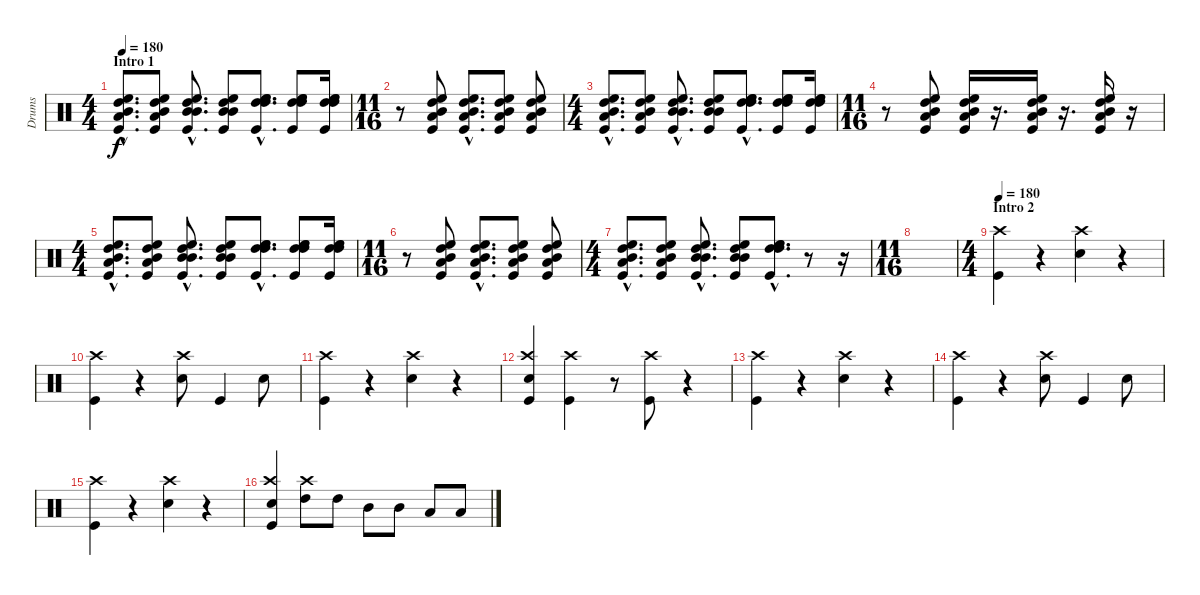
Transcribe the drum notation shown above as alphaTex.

\track ("Drums" "Drums") {instrument percussion}
\staff {score}
\articulation defaults
\ts (4 4)
\section ("" "Intro 1")
\tempo 180
\tempo 160
\tempo 180
\clef neutral
\ks c
("Low Tom (hit)"{hac} "Mid Tom (hit)"{hac} "High Tom (hit)"{hac} "High Floor Tom (hit)"{hac} "Kick (hit)"{hac}).8{d dy f} ("Low Tom (hit)" "Mid Tom (hit)" "High Tom (hit)" "High Floor Tom (hit)" "Kick (hit)").8 ("Mid Tom (hit)"{hac} "Mid Tom (hit)"{hac} "High Tom (hit)"{hac} "High Floor Tom (hit)"{hac} "Kick (hit)"{hac}).8{d} ("Mid Tom (hit)" "Mid Tom (hit)" "High Tom (hit)" "High Floor Tom (hit)" "Kick (hit)").8 ("High Tom (hit)"{hac} "High Tom (hit)"{hac} "High Floor Tom (hit)"{hac} "High Floor Tom (hit)"{hac} "Kick (hit)"{hac}).8{d} ("High Tom (hit)" "High Tom (hit)" "High Floor Tom (hit)" "High Floor Tom (hit)" "Kick (hit)").8 ("High Tom (hit)" "High Tom (hit)" "High Floor Tom (hit)" "High Floor Tom (hit)" "Kick (hit)").16 |
\ts (11 16)
r.8 ("Low Tom (hit)" "Mid Tom (hit)" "High Tom (hit)" "High Floor Tom (hit)" "Kick (hit)").8 ("Low Tom (hit)"{hac} "Mid Tom (hit)"{hac} "High Tom (hit)"{hac} "High Floor Tom (hit)"{hac} "Kick (hit)"{hac}).8{d} ("Low Tom (hit)" "Mid Tom (hit)" "High Tom (hit)" "High Floor Tom (hit)" "Kick (hit)").8 ("Low Tom (hit)" "Mid Tom (hit)" "High Tom (hit)" "High Floor Tom (hit)" "Kick (hit)").8 |
\ts (4 4)
("Low Tom (hit)"{hac} "Mid Tom (hit)"{hac} "High Tom (hit)"{hac} "High Floor Tom (hit)"{hac} "Kick (hit)"{hac}).8{d} ("Low Tom (hit)" "Mid Tom (hit)" "High Tom (hit)" "High Floor Tom (hit)" "Kick (hit)").8 ("Mid Tom (hit)"{hac} "Mid Tom (hit)"{hac} "High Tom (hit)"{hac} "High Floor Tom (hit)"{hac} "Kick (hit)"{hac}).8{d} ("Mid Tom (hit)" "Mid Tom (hit)" "High Tom (hit)" "High Floor Tom (hit)" "Kick (hit)").8 ("High Tom (hit)"{hac} "High Tom (hit)"{hac} "High Floor Tom (hit)"{hac} "High Floor Tom (hit)"{hac} "Kick (hit)"{hac}).8{d} ("High Tom (hit)" "High Tom (hit)" "High Floor Tom (hit)" "High Floor Tom (hit)" "Kick (hit)").8 ("High Tom (hit)" "High Tom (hit)" "High Floor Tom (hit)" "High Floor Tom (hit)" "Kick (hit)").16 |
\ts (11 16)
r.8 ("Low Tom (hit)" "Mid Tom (hit)" "High Tom (hit)" "High Floor Tom (hit)" "Kick (hit)").8 ("Low Tom (hit)" "Mid Tom (hit)" "High Tom (hit)" "High Floor Tom (hit)" "Kick (hit)").16 r.16{d} ("Low Tom (hit)" "Mid Tom (hit)" "High Tom (hit)" "High Floor Tom (hit)" "Kick (hit)").16 r.16{d} ("Low Tom (hit)" "Mid Tom (hit)" "High Tom (hit)" "High Floor Tom (hit)" "Kick (hit)").16 r.16 |
\ts (4 4)
("Low Tom (hit)"{hac} "Mid Tom (hit)"{hac} "High Tom (hit)"{hac} "High Floor Tom (hit)"{hac} "Kick (hit)"{hac}).8{d} ("Low Tom (hit)" "Mid Tom (hit)" "High Tom (hit)" "High Floor Tom (hit)" "Kick (hit)").8 ("Mid Tom (hit)"{hac} "Mid Tom (hit)"{hac} "High Tom (hit)"{hac} "High Floor Tom (hit)"{hac} "Kick (hit)"{hac}).8{d} ("Mid Tom (hit)" "Mid Tom (hit)" "High Tom (hit)" "High Floor Tom (hit)" "Kick (hit)").8 ("High Tom (hit)"{hac} "High Tom (hit)"{hac} "High Floor Tom (hit)"{hac} "High Floor Tom (hit)"{hac} "Kick (hit)"{hac}).8{d} ("High Tom (hit)" "High Tom (hit)" "High Floor Tom (hit)" "High Floor Tom (hit)" "Kick (hit)").8 ("High Tom (hit)" "High Tom (hit)" "High Floor Tom (hit)" "High Floor Tom (hit)" "Kick (hit)").16 |
\ts (11 16)
r.8 ("Low Tom (hit)" "Mid Tom (hit)" "High Tom (hit)" "High Floor Tom (hit)" "Kick (hit)").8 ("Low Tom (hit)"{hac} "Mid Tom (hit)"{hac} "High Tom (hit)"{hac} "High Floor Tom (hit)"{hac} "Kick (hit)"{hac}).8{d} ("Low Tom (hit)" "Mid Tom (hit)" "High Tom (hit)" "High Floor Tom (hit)" "Kick (hit)").8 ("Low Tom (hit)" "Mid Tom (hit)" "High Tom (hit)" "High Floor Tom (hit)" "Kick (hit)").8 |
\ts (4 4)
("Low Tom (hit)"{hac} "Mid Tom (hit)"{hac} "High Tom (hit)"{hac} "High Floor Tom (hit)"{hac} "Kick (hit)"{hac}).8{d} ("Low Tom (hit)" "Mid Tom (hit)" "High Tom (hit)" "High Floor Tom (hit)" "Kick (hit)").8 ("Mid Tom (hit)"{hac} "Mid Tom (hit)"{hac} "High Tom (hit)"{hac} "High Floor Tom (hit)"{hac} "Kick (hit)"{hac}).8{d} ("Mid Tom (hit)" "Mid Tom (hit)" "High Tom (hit)" "High Floor Tom (hit)" "Kick (hit)").8 ("High Tom (hit)"{hac} "High Tom (hit)"{hac} "High Floor Tom (hit)"{hac} "High Floor Tom (hit)"{hac} "Kick (hit)"{hac}).8{d} r.8 r.16 |
\ts (11 16)
|
\ts (4 4)
\section ("" "Intro 2")
\tempo 180
("Crash high (hit)" "Kick (hit)").4 r.4 ("Crash high (hit)" "Snare (hit) 2").4 r.4 |
("Crash high (hit)" "Kick (hit)").4 r.4 ("Crash high (hit)" "Snare (hit) 2").8 "Kick (hit)".4 "Snare (hit) 2".8 |
("Crash high (hit)" "Kick (hit)").4 r.4 ("Crash high (hit)" "Snare (hit) 2").4 r.4 |
("Crash high (hit)" "Snare (hit) 2" "Kick (hit)").4 ("Crash high (hit)" "Kick (hit)").4 r.8 ("Crash high (hit)" "Kick (hit)").8 r.4 |
("Crash high (hit)" "Kick (hit)").4 r.4 ("Crash high (hit)" "Snare (hit) 2").4 r.4 |
("Crash high (hit)" "Kick (hit)").4 r.4 ("Crash high (hit)" "Snare (hit) 2").8 "Kick (hit)".4 "Snare (hit) 2".8 |
("Crash high (hit)" "Kick (hit)").4 r.4 ("Crash high (hit)" "Snare (hit) 2").4 r.4 |
("Crash high (hit)" "Snare (hit) 2" "Kick (hit)").4 ("Crash high (hit)" "High Tom (hit)").8 "High Tom (hit)".8 "Mid Tom (hit)".8 "Mid Tom (hit)".8 "Low Tom (hit)".8 "Low Tom (hit)".8
